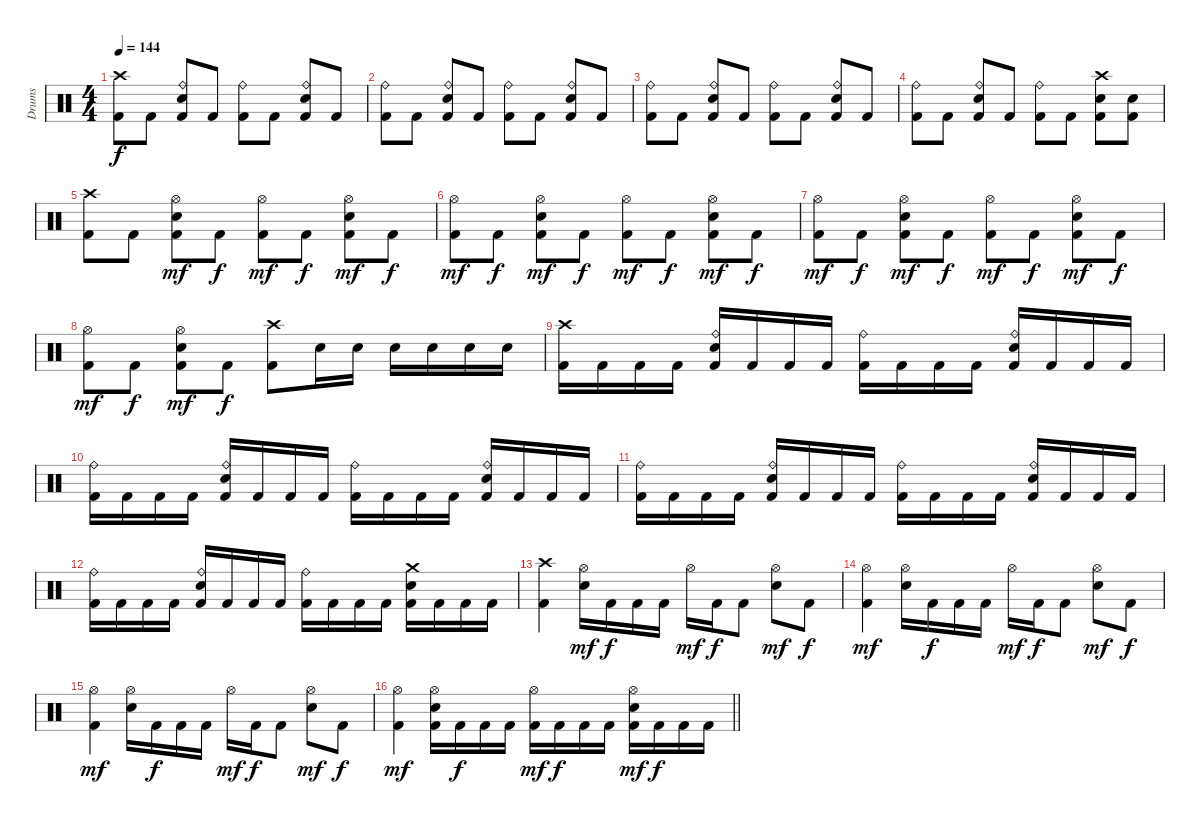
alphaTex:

\track ("Drums" "Drums") {instrument percussion}
\staff {score}
\articulation defaults
\ts (4 4)
\tempo 144
\clef neutral
\ks c
("Crash high (hit)" "Kick (hit) 2").8{dy f} "Kick (hit) 2".8 ("Ride (bell)" "Electric Snare (hit)" "Kick (hit) 2").8 "Kick (hit) 2".8 ("Ride (bell)" "Kick (hit) 2").8 "Kick (hit) 2".8 ("Ride (bell)" "Electric Snare (hit)" "Kick (hit) 2").8 "Kick (hit) 2".8 |
("Ride (bell)" "Kick (hit) 2").8 "Kick (hit) 2".8 ("Ride (bell)" "Electric Snare (hit)" "Kick (hit) 2").8 "Kick (hit) 2".8 ("Ride (bell)" "Kick (hit) 2").8 "Kick (hit) 2".8 ("Ride (bell)" "Electric Snare (hit)" "Kick (hit) 2").8 "Kick (hit) 2".8 |
("Ride (bell)" "Kick (hit) 2").8 "Kick (hit) 2".8 ("Ride (bell)" "Electric Snare (hit)" "Kick (hit) 2").8 "Kick (hit) 2".8 ("Ride (bell)" "Kick (hit) 2").8 "Kick (hit) 2".8 ("Ride (bell)" "Electric Snare (hit)" "Kick (hit) 2").8 "Kick (hit) 2".8 |
("Ride (bell)" "Kick (hit) 2").8 "Kick (hit) 2".8 ("Ride (bell)" "Electric Snare (hit)" "Kick (hit) 2").8 "Kick (hit) 2".8 ("Ride (bell)" "Kick (hit) 2").8 "Kick (hit) 2".8 ("Crash high (hit)" "Electric Snare (hit)" "Kick (hit) 2").8 ("Electric Snare (hit)" "Kick (hit) 2").8 |
("Crash high (hit)" "Kick (hit) 2").8 "Kick (hit) 2".8 ("Hi-Hat (open)" "Electric Snare (hit)" "Kick (hit) 2").8{dy mf} "Kick (hit) 2".8{dy f} ("Hi-Hat (open)" "Kick (hit) 2").8{dy mf} "Kick (hit) 2".8{dy f} ("Hi-Hat (open)" "Electric Snare (hit)" "Kick (hit) 2").8{dy mf} "Kick (hit) 2".8{dy f} |
("Hi-Hat (open)" "Kick (hit) 2").8{dy mf} "Kick (hit) 2".8{dy f} ("Hi-Hat (open)" "Electric Snare (hit)" "Kick (hit) 2").8{dy mf} "Kick (hit) 2".8{dy f} ("Hi-Hat (open)" "Kick (hit) 2").8{dy mf} "Kick (hit) 2".8{dy f} ("Hi-Hat (open)" "Electric Snare (hit)" "Kick (hit) 2").8{dy mf} "Kick (hit) 2".8{dy f} |
("Hi-Hat (open)" "Kick (hit) 2").8{dy mf} "Kick (hit) 2".8{dy f} ("Hi-Hat (open)" "Electric Snare (hit)" "Kick (hit) 2").8{dy mf} "Kick (hit) 2".8{dy f} ("Hi-Hat (open)" "Kick (hit) 2").8{dy mf} "Kick (hit) 2".8{dy f} ("Hi-Hat (open)" "Electric Snare (hit)" "Kick (hit) 2").8{dy mf} "Kick (hit) 2".8{dy f} |
("Hi-Hat (open)" "Kick (hit) 2").8{dy mf} "Kick (hit) 2".8{dy f} ("Hi-Hat (open)" "Electric Snare (hit)" "Kick (hit) 2").8{dy mf} "Kick (hit) 2".8{dy f} ("Crash high (hit)" "Kick (hit) 2").8 "Electric Snare (hit)".16 "Electric Snare (hit)".16 "Electric Snare (hit)".16 "Electric Snare (hit)".16 "Electric Snare (hit)".16 "Electric Snare (hit)".16 |
("Crash high (hit)" "Kick (hit) 2").16 "Kick (hit) 2".16 "Kick (hit) 2".16 "Kick (hit) 2".16 ("Ride (bell)" "Electric Snare (hit)" "Kick (hit) 2").16 "Kick (hit) 2".16 "Kick (hit) 2".16 "Kick (hit) 2".16 ("Ride (bell)" "Kick (hit) 2").16 "Kick (hit) 2".16 "Kick (hit) 2".16 "Kick (hit) 2".16 ("Ride (bell)" "Electric Snare (hit)" "Kick (hit) 2").16 "Kick (hit) 2".16 "Kick (hit) 2".16 "Kick (hit) 2".16 |
("Ride (bell)" "Kick (hit) 2").16 "Kick (hit) 2".16 "Kick (hit) 2".16 "Kick (hit) 2".16 ("Ride (bell)" "Electric Snare (hit)" "Kick (hit) 2").16 "Kick (hit) 2".16 "Kick (hit) 2".16 "Kick (hit) 2".16 ("Ride (bell)" "Kick (hit) 2").16 "Kick (hit) 2".16 "Kick (hit) 2".16 "Kick (hit) 2".16 ("Ride (bell)" "Electric Snare (hit)" "Kick (hit) 2").16 "Kick (hit) 2".16 "Kick (hit) 2".16 "Kick (hit) 2".16 |
("Ride (bell)" "Kick (hit) 2").16 "Kick (hit) 2".16 "Kick (hit) 2".16 "Kick (hit) 2".16 ("Ride (bell)" "Electric Snare (hit)" "Kick (hit) 2").16 "Kick (hit) 2".16 "Kick (hit) 2".16 "Kick (hit) 2".16 ("Ride (bell)" "Kick (hit) 2").16 "Kick (hit) 2".16 "Kick (hit) 2".16 "Kick (hit) 2".16 ("Ride (bell)" "Electric Snare (hit)" "Kick (hit) 2").16 "Kick (hit) 2".16 "Kick (hit) 2".16 "Kick (hit) 2".16 |
("Ride (bell)" "Kick (hit) 2").16 "Kick (hit) 2".16 "Kick (hit) 2".16 "Kick (hit) 2".16 ("Ride (bell)" "Electric Snare (hit)" "Kick (hit) 2").16 "Kick (hit) 2".16 "Kick (hit) 2".16 "Kick (hit) 2".16 ("Ride (bell)" "Kick (hit) 2").16 "Kick (hit) 2".16 "Kick (hit) 2".16 "Kick (hit) 2".16 ("Crash medium (hit)" "Electric Snare (hit)" "Kick (hit) 2").16 "Kick (hit) 2".16 "Kick (hit) 2".16 "Kick (hit) 2".16 |
("Crash high (hit)" "Kick (hit) 2").4 ("Hi-Hat (open)" "Electric Snare (hit)").16{dy mf} "Kick (hit) 2".16{dy f} "Kick (hit) 2".16 "Kick (hit) 2".16 "Hi-Hat (open)".16{dy mf} "Kick (hit) 2".16{dy f} "Kick (hit) 2".8 ("Hi-Hat (open)" "Electric Snare (hit)").8{dy mf} "Kick (hit) 2".8{dy f} |
("Hi-Hat (open)" "Kick (hit) 2").4{dy mf} ("Hi-Hat (open)" "Electric Snare (hit)").16 "Kick (hit) 2".16{dy f} "Kick (hit) 2".16 "Kick (hit) 2".16 "Hi-Hat (open)".16{dy mf} "Kick (hit) 2".16{dy f} "Kick (hit) 2".8 ("Hi-Hat (open)" "Electric Snare (hit)").8{dy mf} "Kick (hit) 2".8{dy f} |
("Hi-Hat (open)" "Kick (hit) 2").4{dy mf} ("Hi-Hat (open)" "Electric Snare (hit)").16 "Kick (hit) 2".16{dy f} "Kick (hit) 2".16 "Kick (hit) 2".16 "Hi-Hat (open)".16{dy mf} "Kick (hit) 2".16{dy f} "Kick (hit) 2".8 ("Hi-Hat (open)" "Electric Snare (hit)").8{dy mf} "Kick (hit) 2".8{dy f} |
\barLineRight lightlight
("Hi-Hat (open)" "Kick (hit) 2").4{dy mf} ("Hi-Hat (open)" "Electric Snare (hit)" "Kick (hit) 2").16 "Kick (hit) 2".16{dy f} "Kick (hit) 2".16 "Kick (hit) 2".16 ("Hi-Hat (open)" "Kick (hit) 2").16{dy mf} "Kick (hit) 2".16{dy f} "Kick (hit) 2".16 "Kick (hit) 2".16 ("Hi-Hat (open)" "Electric Snare (hit)" "Kick (hit) 2").16{dy mf} "Kick (hit) 2".16{dy f} "Kick (hit) 2".16 "Kick (hit) 2".16
